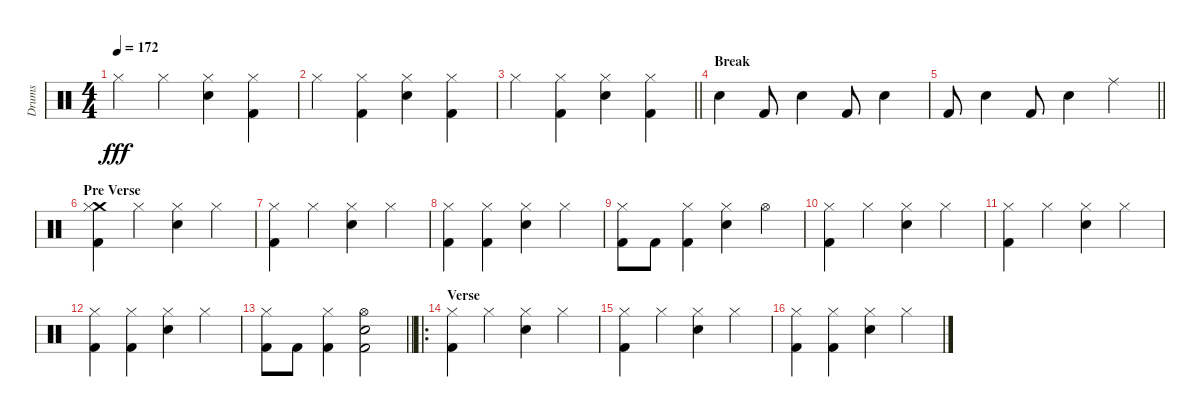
\track ("Drums" "Drums") {instrument percussion}
\staff {score}
\articulation defaults
\ts (4 4)
\tempo 172
\clef neutral
\ks c "Hi-Hat (closed)".4{dy fff} "Hi-Hat (closed)".4
("Hi-Hat (closed)" "Electric Snare (hit)").4 ("Hi-Hat (closed)" "Kick (hit) 2").4 |
"Hi-Hat (closed)".4 ("Hi-Hat (closed)" "Kick (hit) 2").4 ("Hi-Hat (closed)" "Electric Snare (hit)").4 ("Hi-Hat (closed)" "Kick (hit) 2").4 |
\barLineRight lightlight "Hi-Hat (closed)".4
("Hi-Hat (closed)" "Kick (hit) 2").4 ("Hi-Hat (closed)" "Electric Snare (hit)").4 ("Hi-Hat (closed)" "Kick (hit) 2").4 |
\section ("" "Break")
"Electric Snare (hit)".4 "Kick (hit) 2".8 "Electric Snare (hit)".4 "Kick (hit) 2".8 "Electric Snare (hit)".4 |
\barLineRight lightlight "Kick (hit) 2".8 "Electric Snare (hit)".4 "Kick (hit) 2".8 "Electric Snare (hit)".4 "Ride (middle)".4
|
\section ("" "Pre Verse")
("Crash medium (hit)" "Hi-Hat (closed)" "Kick (hit) 2").4 "Hi-Hat (closed)".4 ("Hi-Hat (closed)" "Electric Snare (hit)").4 "Hi-Hat (closed)".4 |
("Hi-Hat (closed)" "Kick (hit) 2").4 "Hi-Hat (closed)".4 ("Hi-Hat (closed)" "Electric Snare (hit)").4 "Hi-Hat (closed)".4 |
("Hi-Hat (closed)" "Kick (hit) 2").4 ("Hi-Hat (closed)" "Kick (hit) 2").4 ("Hi-Hat (closed)" "Electric Snare (hit)").4 "Hi-Hat (closed)".4 |
("Hi-Hat (closed)" "Kick (hit) 2").8 "Kick (hit) 2".8 ("Hi-Hat (closed)" "Kick (hit) 2").4 ("Hi-Hat (closed)" "Electric Snare (hit)").4 "Hi-Hat (open)".4 |
("Hi-Hat (closed)" "Kick (hit) 2").4 "Hi-Hat (closed)".4 ("Hi-Hat (closed)" "Electric Snare (hit)").4 "Hi-Hat (closed)".4 |
("Hi-Hat (closed)" "Kick (hit) 2").4 "Hi-Hat (closed)".4 ("Hi-Hat (closed)" "Electric Snare (hit)").4 "Hi-Hat (closed)".4 |
("Hi-Hat (closed)" "Kick (hit) 2").4 ("Hi-Hat (closed)" "Kick (hit) 2").4 ("Hi-Hat (closed)" "Electric Snare (hit)").4 "Hi-Hat (closed)".4 |
\barLineRight lightlight
("Hi-Hat (closed)" "Kick (hit) 2").8 "Kick (hit) 2".8 ("Hi-Hat (closed)" "Kick (hit) 2").4 ("Hi-Hat (open)" "Electric Snare (hit)" "Kick (hit) 2").2 |
\ro
\section ("" "Verse")
("Hi-Hat (closed)" "Kick (hit) 2").4 "Hi-Hat (closed)".4 ("Hi-Hat (closed)" "Electric Snare (hit)").4 "Hi-Hat (closed)".4 |
("Hi-Hat (closed)" "Kick (hit) 2").4 "Hi-Hat (closed)".4 ("Hi-Hat (closed)" "Electric Snare (hit)").4 "Hi-Hat (closed)".4 |
("Hi-Hat (closed)" "Kick (hit) 2").4 ("Hi-Hat (closed)" "Kick (hit) 2").4 ("Hi-Hat (closed)" "Electric Snare (hit)").4 "Hi-Hat (closed)".4
